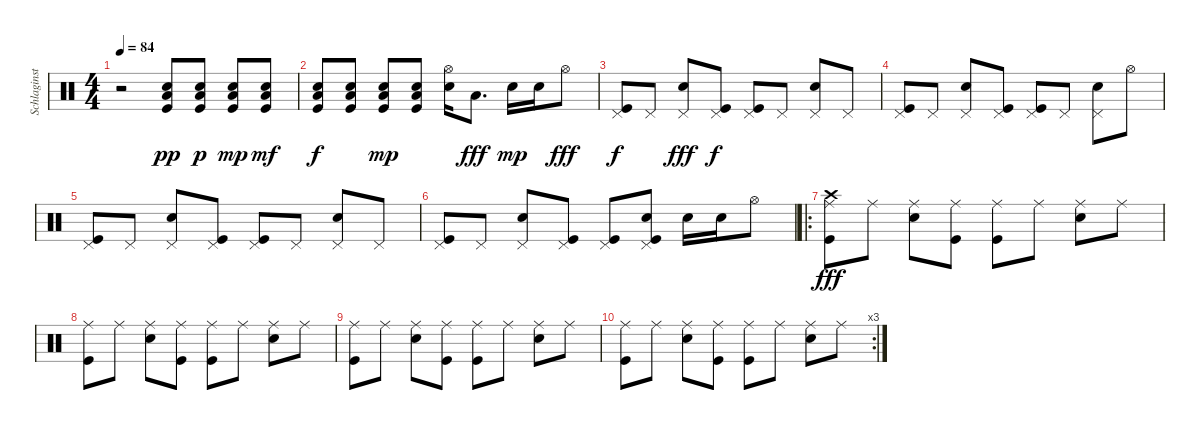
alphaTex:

\track ("Schlaginstrumente - Auswahl" "Schlaginst") {instrument percussion}
\staff {score}
\articulation defaults
\ts (4 4)
\tempo 84
\clef neutral
\ks c
r.2{dy fff} ("Low Floor Tom (hit)" "Electric Snare (hit)" "Kick (hit)").8{dy pp} ("Low Floor Tom (hit)" "Electric Snare (hit)" "Kick (hit)").8{dy p} ("Low Floor Tom (hit)" "Electric Snare (hit)" "Kick (hit)").8{dy mp} ("Low Floor Tom (hit)" "Electric Snare (hit)" "Kick (hit)").8{dy mf} |
("Low Floor Tom (hit)" "Electric Snare (hit)" "Kick (hit)").8{dy f} ("Low Floor Tom (hit)" "Electric Snare (hit)" "Kick (hit)").8 ("Low Floor Tom (hit)" "Electric Snare (hit)" "Kick (hit)").8{dy mp} ("Low Floor Tom (hit)" "Electric Snare (hit)" "Kick (hit)").8 ("Hi-Hat (open)" "Electric Snare (hit)").16 "Low Floor Tom (hit)".8{d dy fff} "Electric Snare (hit)".16{dy mp} "Electric Snare (hit)".16 "Hi-Hat (open)".8{dy fff} |
("Pedal Hi-Hat (hit)" "Kick (hit)").8{dy f} "Pedal Hi-Hat (hit)".8 ("Pedal Hi-Hat (hit)" "Electric Snare (hit)").8{dy fff} ("Pedal Hi-Hat (hit)" "Kick (hit)").8{dy f} ("Pedal Hi-Hat (hit)" "Kick (hit)").8 "Pedal Hi-Hat (hit)".8 ("Pedal Hi-Hat (hit)" "Electric Snare (hit)").8 "Pedal Hi-Hat (hit)".8 |
("Pedal Hi-Hat (hit)" "Kick (hit)").8 "Pedal Hi-Hat (hit)".8 ("Pedal Hi-Hat (hit)" "Electric Snare (hit)").8 ("Pedal Hi-Hat (hit)" "Kick (hit)").8 ("Pedal Hi-Hat (hit)" "Kick (hit)").8 "Pedal Hi-Hat (hit)".8 ("Pedal Hi-Hat (hit)" "Electric Snare (hit)").8 "Hi-Hat (open)".8 |
("Pedal Hi-Hat (hit)" "Kick (hit)").8 "Pedal Hi-Hat (hit)".8 ("Pedal Hi-Hat (hit)" "Electric Snare (hit)").8 ("Pedal Hi-Hat (hit)" "Kick (hit)").8 ("Pedal Hi-Hat (hit)" "Kick (hit)").8 "Pedal Hi-Hat (hit)".8 ("Pedal Hi-Hat (hit)" "Electric Snare (hit)").8 "Pedal Hi-Hat (hit)".8 |
("Pedal Hi-Hat (hit)" "Kick (hit)").8 "Pedal Hi-Hat (hit)".8 ("Pedal Hi-Hat (hit)" "Electric Snare (hit)").8 ("Pedal Hi-Hat (hit)" "Kick (hit)").8 ("Pedal Hi-Hat (hit)" "Kick (hit)").8 ("Electric Snare (hit)" "Kick (hit)" "Pedal Hi-Hat (hit)").8 "Electric Snare (hit)".16 "Electric Snare (hit)".16 "Hi-Hat (open)".8 |
\ro
("Ride (middle)" "Kick (hit)" "Crash high (hit)").8{dy fff} "Ride (middle)".8 ("Ride (middle)" "Electric Snare (hit)").8 ("Ride (middle)" "Kick (hit)").8 ("Ride (middle)" "Kick (hit)").8 "Ride (middle)".8 ("Ride (middle)" "Electric Snare (hit)").8 "Ride (middle)".8 |
("Ride (middle)" "Kick (hit)").8 "Ride (middle)".8 ("Ride (middle)" "Electric Snare (hit)").8 ("Ride (middle)" "Kick (hit)").8 ("Ride (middle)" "Kick (hit)").8 "Ride (middle)".8 ("Ride (middle)" "Electric Snare (hit)").8 "Ride (middle)".8 |
("Ride (middle)" "Kick (hit)").8 "Ride (middle)".8 ("Ride (middle)" "Electric Snare (hit)").8 ("Ride (middle)" "Kick (hit)").8 ("Ride (middle)" "Kick (hit)").8 "Ride (middle)".8 ("Ride (middle)" "Electric Snare (hit)").8 "Ride (middle)".8 |
\rc 3
("Ride (middle)" "Kick (hit)").8 "Ride (middle)".8 ("Ride (middle)" "Electric Snare (hit)").8 ("Ride (middle)" "Kick (hit)").8 ("Ride (middle)" "Kick (hit)").8 "Ride (middle)".8 ("Ride (middle)" "Electric Snare (hit)").8 "Ride (middle)".8
